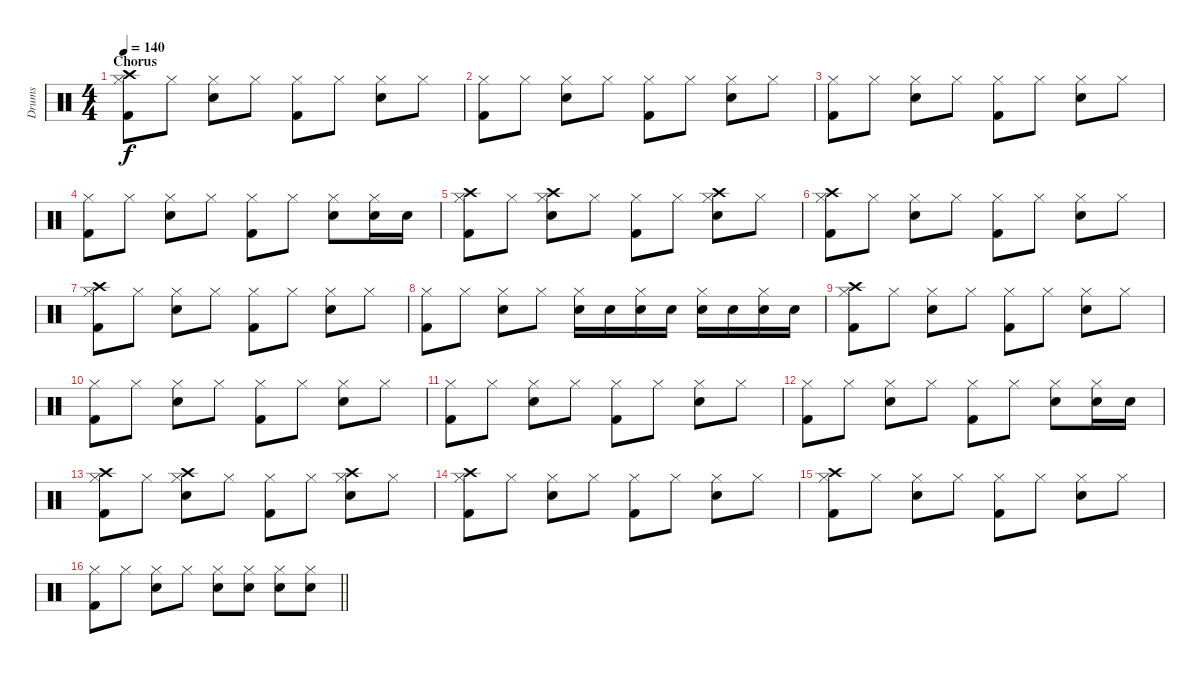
\track ("Drums" "Drums") {instrument percussion}
\staff {score}
\articulation defaults
\ts (4 4)
\section ("" "Chorus")
\tempo 140
\clef neutral
\ks c
("Hi-Hat (closed)" "Crash high (hit)" "Kick (hit) 2").8{dy f} "Hi-Hat (closed)".8 ("Hi-Hat (closed)" "Snare (hit) 2").8 "Hi-Hat (closed)".8 ("Hi-Hat (closed)" "Kick (hit) 2").8 "Hi-Hat (closed)".8 ("Hi-Hat (closed)" "Snare (hit) 2").8 "Hi-Hat (closed)".8 |
("Hi-Hat (closed)" "Kick (hit) 2").8 "Hi-Hat (closed)".8 ("Hi-Hat (closed)" "Snare (hit) 2").8 "Hi-Hat (closed)".8 ("Hi-Hat (closed)" "Kick (hit) 2").8 "Hi-Hat (closed)".8 ("Hi-Hat (closed)" "Snare (hit) 2").8 "Hi-Hat (closed)".8 |
("Hi-Hat (closed)" "Kick (hit) 2").8 "Hi-Hat (closed)".8 ("Hi-Hat (closed)" "Snare (hit) 2").8 "Hi-Hat (closed)".8 ("Hi-Hat (closed)" "Kick (hit) 2").8 "Hi-Hat (closed)".8 ("Hi-Hat (closed)" "Snare (hit) 2").8 "Hi-Hat (closed)".8 |
("Hi-Hat (closed)" "Kick (hit) 2").8 "Hi-Hat (closed)".8 ("Hi-Hat (closed)" "Snare (hit) 2").8 "Hi-Hat (closed)".8 ("Hi-Hat (closed)" "Kick (hit) 2").8 "Hi-Hat (closed)".8 ("Hi-Hat (closed)" "Snare (hit) 2").8 ("Hi-Hat (closed)" "Snare (hit) 2").16 "Snare (hit) 2".16 |
("Hi-Hat (closed)" "Crash high (hit)" "Kick (hit) 2").8 "Hi-Hat (closed)".8 ("Hi-Hat (closed)" "Crash high (hit)" "Snare (hit) 2").8 "Hi-Hat (closed)".8 ("Hi-Hat (closed)" "Kick (hit) 2").8 "Hi-Hat (closed)".8 ("Hi-Hat (closed)" "Crash high (hit)" "Snare (hit) 2").8 "Hi-Hat (closed)".8 |
("Hi-Hat (closed)" "Crash high (hit)" "Kick (hit) 2").8 "Hi-Hat (closed)".8 ("Hi-Hat (closed)" "Snare (hit) 2").8 "Hi-Hat (closed)".8 ("Hi-Hat (closed)" "Kick (hit) 2").8 "Hi-Hat (closed)".8 ("Hi-Hat (closed)" "Snare (hit) 2").8 "Hi-Hat (closed)".8 |
("Hi-Hat (closed)" "Crash high (hit)" "Kick (hit) 2").8 "Hi-Hat (closed)".8 ("Hi-Hat (closed)" "Snare (hit) 2").8 "Hi-Hat (closed)".8 ("Hi-Hat (closed)" "Kick (hit) 2").8 "Hi-Hat (closed)".8 ("Hi-Hat (closed)" "Snare (hit) 2").8 "Hi-Hat (closed)".8 |
("Hi-Hat (closed)" "Kick (hit) 2").8 "Hi-Hat (closed)".8 ("Hi-Hat (closed)" "Snare (hit) 2").8 "Hi-Hat (closed)".8 ("Hi-Hat (closed)" "Snare (hit) 2").16 "Snare (hit) 2".16 ("Hi-Hat (closed)" "Snare (hit) 2").16 "Snare (hit) 2".16 ("Hi-Hat (closed)" "Snare (hit) 2").16 "Snare (hit) 2".16 ("Hi-Hat (closed)" "Snare (hit) 2").16 "Snare (hit) 2".16 |
("Hi-Hat (closed)" "Crash high (hit)" "Kick (hit) 2").8 "Hi-Hat (closed)".8 ("Hi-Hat (closed)" "Snare (hit) 2").8 "Hi-Hat (closed)".8 ("Hi-Hat (closed)" "Kick (hit) 2").8 "Hi-Hat (closed)".8 ("Hi-Hat (closed)" "Snare (hit) 2").8 "Hi-Hat (closed)".8 |
("Hi-Hat (closed)" "Kick (hit) 2").8 "Hi-Hat (closed)".8 ("Hi-Hat (closed)" "Snare (hit) 2").8 "Hi-Hat (closed)".8 ("Hi-Hat (closed)" "Kick (hit) 2").8 "Hi-Hat (closed)".8 ("Hi-Hat (closed)" "Snare (hit) 2").8 "Hi-Hat (closed)".8 |
("Hi-Hat (closed)" "Kick (hit) 2").8 "Hi-Hat (closed)".8 ("Hi-Hat (closed)" "Snare (hit) 2").8 "Hi-Hat (closed)".8 ("Hi-Hat (closed)" "Kick (hit) 2").8 "Hi-Hat (closed)".8 ("Hi-Hat (closed)" "Snare (hit) 2").8 "Hi-Hat (closed)".8 |
("Hi-Hat (closed)" "Kick (hit) 2").8 "Hi-Hat (closed)".8 ("Hi-Hat (closed)" "Snare (hit) 2").8 "Hi-Hat (closed)".8 ("Hi-Hat (closed)" "Kick (hit) 2").8 "Hi-Hat (closed)".8 ("Hi-Hat (closed)" "Snare (hit) 2").8 ("Hi-Hat (closed)" "Snare (hit) 2").16 "Snare (hit) 2".16 |
("Hi-Hat (closed)" "Crash high (hit)" "Kick (hit) 2").8 "Hi-Hat (closed)".8 ("Hi-Hat (closed)" "Crash high (hit)" "Snare (hit) 2").8 "Hi-Hat (closed)".8 ("Hi-Hat (closed)" "Kick (hit) 2").8 "Hi-Hat (closed)".8 ("Hi-Hat (closed)" "Crash high (hit)" "Snare (hit) 2").8 "Hi-Hat (closed)".8 |
("Hi-Hat (closed)" "Crash high (hit)" "Kick (hit) 2").8 "Hi-Hat (closed)".8 ("Hi-Hat (closed)" "Snare (hit) 2").8 "Hi-Hat (closed)".8 ("Hi-Hat (closed)" "Kick (hit) 2").8 "Hi-Hat (closed)".8 ("Hi-Hat (closed)" "Snare (hit) 2").8 "Hi-Hat (closed)".8 |
("Hi-Hat (closed)" "Crash high (hit)" "Kick (hit) 2").8 "Hi-Hat (closed)".8 ("Hi-Hat (closed)" "Snare (hit) 2").8 "Hi-Hat (closed)".8 ("Hi-Hat (closed)" "Kick (hit) 2").8 "Hi-Hat (closed)".8 ("Hi-Hat (closed)" "Snare (hit) 2").8 "Hi-Hat (closed)".8 |
\barLineRight lightlight
("Hi-Hat (closed)" "Kick (hit) 2").8 "Hi-Hat (closed)".8 ("Hi-Hat (closed)" "Snare (hit) 2").8 "Hi-Hat (closed)".8 ("Hi-Hat (closed)" "Snare (hit) 2").8 ("Hi-Hat (closed)" "Snare (hit) 2").8 ("Hi-Hat (closed)" "Snare (hit) 2").8 ("Hi-Hat (closed)" "Snare (hit) 2").8
